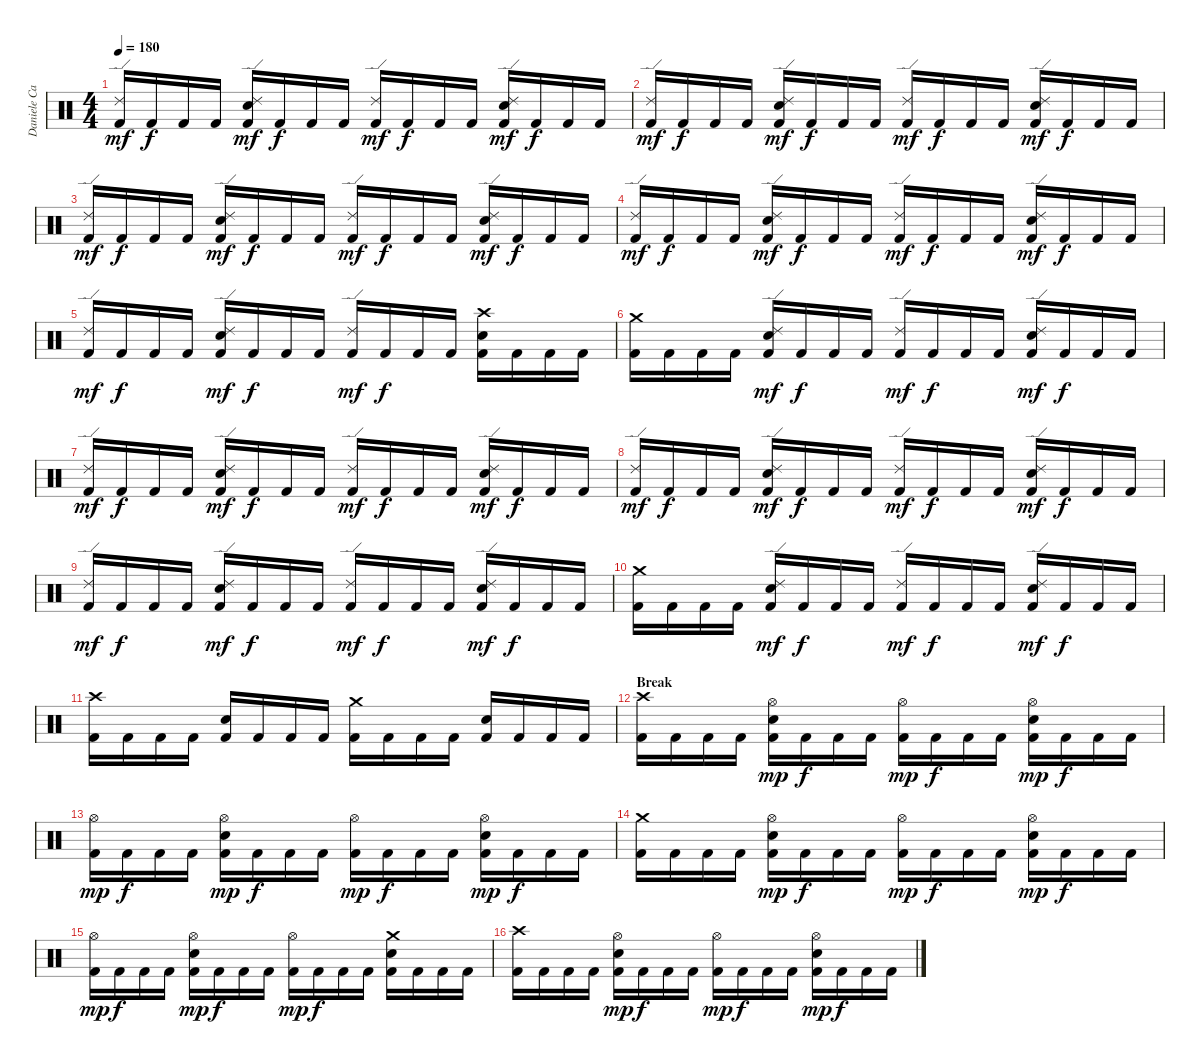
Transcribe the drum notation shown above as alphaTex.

\track ("Daniele Carbonera" "Daniele Ca") {instrument percussion}
\staff {score}
\articulation defaults
\ts (4 4)
\tempo 180
\clef neutral
\ks c
("Kick (hit) 2" "Ride (edge) 2").16{dy mf} "Kick (hit) 2".16{dy f} "Kick (hit) 2".16 "Kick (hit) 2".16 ("Kick (hit) 2" "Ride (edge) 2" "Snare (hit) 2").16{dy mf} "Kick (hit) 2".16{dy f} "Kick (hit) 2".16 "Kick (hit) 2".16 ("Kick (hit) 2" "Ride (edge) 2").16{dy mf} "Kick (hit) 2".16{dy f} "Kick (hit) 2".16 "Kick (hit) 2".16 ("Kick (hit) 2" "Ride (edge) 2" "Snare (hit) 2").16{dy mf} "Kick (hit) 2".16{dy f} "Kick (hit) 2".16 "Kick (hit) 2".16 |
("Kick (hit) 2" "Ride (edge) 2").16{dy mf} "Kick (hit) 2".16{dy f} "Kick (hit) 2".16 "Kick (hit) 2".16 ("Kick (hit) 2" "Ride (edge) 2" "Snare (hit) 2").16{dy mf} "Kick (hit) 2".16{dy f} "Kick (hit) 2".16 "Kick (hit) 2".16 ("Kick (hit) 2" "Ride (edge) 2").16{dy mf} "Kick (hit) 2".16{dy f} "Kick (hit) 2".16 "Kick (hit) 2".16 ("Kick (hit) 2" "Ride (edge) 2" "Snare (hit) 2").16{dy mf} "Kick (hit) 2".16{dy f} "Kick (hit) 2".16 "Kick (hit) 2".16 |
("Kick (hit) 2" "Ride (edge) 2").16{dy mf} "Kick (hit) 2".16{dy f} "Kick (hit) 2".16 "Kick (hit) 2".16 ("Kick (hit) 2" "Ride (edge) 2" "Snare (hit) 2").16{dy mf} "Kick (hit) 2".16{dy f} "Kick (hit) 2".16 "Kick (hit) 2".16 ("Kick (hit) 2" "Ride (edge) 2").16{dy mf} "Kick (hit) 2".16{dy f} "Kick (hit) 2".16 "Kick (hit) 2".16 ("Kick (hit) 2" "Ride (edge) 2" "Snare (hit) 2").16{dy mf} "Kick (hit) 2".16{dy f} "Kick (hit) 2".16 "Kick (hit) 2".16 |
("Kick (hit) 2" "Ride (edge) 2").16{dy mf} "Kick (hit) 2".16{dy f} "Kick (hit) 2".16 "Kick (hit) 2".16 ("Kick (hit) 2" "Ride (edge) 2" "Snare (hit) 2").16{dy mf} "Kick (hit) 2".16{dy f} "Kick (hit) 2".16 "Kick (hit) 2".16 ("Kick (hit) 2" "Ride (edge) 2").16{dy mf} "Kick (hit) 2".16{dy f} "Kick (hit) 2".16 "Kick (hit) 2".16 ("Kick (hit) 2" "Ride (edge) 2" "Snare (hit) 2").16{dy mf} "Kick (hit) 2".16{dy f} "Kick (hit) 2".16 "Kick (hit) 2".16 |
("Kick (hit) 2" "Ride (edge) 2").16{dy mf} "Kick (hit) 2".16{dy f} "Kick (hit) 2".16 "Kick (hit) 2".16 ("Kick (hit) 2" "Ride (edge) 2" "Snare (hit) 2").16{dy mf} "Kick (hit) 2".16{dy f} "Kick (hit) 2".16 "Kick (hit) 2".16 ("Kick (hit) 2" "Ride (edge) 2").16{dy mf} "Kick (hit) 2".16{dy f} "Kick (hit) 2".16 "Kick (hit) 2".16 ("Kick (hit) 2" "Crash high (hit)" "Snare (hit) 2").16 "Kick (hit) 2".16 "Kick (hit) 2".16 "Kick (hit) 2".16 |
("Kick (hit) 2" "Crash medium (hit)").16 "Kick (hit) 2".16 "Kick (hit) 2".16 "Kick (hit) 2".16 ("Kick (hit) 2" "Ride (edge) 2" "Snare (hit) 2").16{dy mf} "Kick (hit) 2".16{dy f} "Kick (hit) 2".16 "Kick (hit) 2".16 ("Kick (hit) 2" "Ride (edge) 2").16{dy mf} "Kick (hit) 2".16{dy f} "Kick (hit) 2".16 "Kick (hit) 2".16 ("Kick (hit) 2" "Ride (edge) 2" "Snare (hit) 2").16{dy mf} "Kick (hit) 2".16{dy f} "Kick (hit) 2".16 "Kick (hit) 2".16 |
("Kick (hit) 2" "Ride (edge) 2").16{dy mf} "Kick (hit) 2".16{dy f} "Kick (hit) 2".16 "Kick (hit) 2".16 ("Kick (hit) 2" "Ride (edge) 2" "Snare (hit) 2").16{dy mf} "Kick (hit) 2".16{dy f} "Kick (hit) 2".16 "Kick (hit) 2".16 ("Kick (hit) 2" "Ride (edge) 2").16{dy mf} "Kick (hit) 2".16{dy f} "Kick (hit) 2".16 "Kick (hit) 2".16 ("Kick (hit) 2" "Ride (edge) 2" "Snare (hit) 2").16{dy mf} "Kick (hit) 2".16{dy f} "Kick (hit) 2".16 "Kick (hit) 2".16 |
("Kick (hit) 2" "Ride (edge) 2").16{dy mf} "Kick (hit) 2".16{dy f} "Kick (hit) 2".16 "Kick (hit) 2".16 ("Kick (hit) 2" "Ride (edge) 2" "Snare (hit) 2").16{dy mf} "Kick (hit) 2".16{dy f} "Kick (hit) 2".16 "Kick (hit) 2".16 ("Kick (hit) 2" "Ride (edge) 2").16{dy mf} "Kick (hit) 2".16{dy f} "Kick (hit) 2".16 "Kick (hit) 2".16 ("Kick (hit) 2" "Ride (edge) 2" "Snare (hit) 2").16{dy mf} "Kick (hit) 2".16{dy f} "Kick (hit) 2".16 "Kick (hit) 2".16 |
("Kick (hit) 2" "Ride (edge) 2").16{dy mf} "Kick (hit) 2".16{dy f} "Kick (hit) 2".16 "Kick (hit) 2".16 ("Kick (hit) 2" "Ride (edge) 2" "Snare (hit) 2").16{dy mf} "Kick (hit) 2".16{dy f} "Kick (hit) 2".16 "Kick (hit) 2".16 ("Kick (hit) 2" "Ride (edge) 2").16{dy mf} "Kick (hit) 2".16{dy f} "Kick (hit) 2".16 "Kick (hit) 2".16 ("Kick (hit) 2" "Ride (edge) 2" "Snare (hit) 2").16{dy mf} "Kick (hit) 2".16{dy f} "Kick (hit) 2".16 "Kick (hit) 2".16 |
("Kick (hit) 2" "Crash medium (hit)").16 "Kick (hit) 2".16 "Kick (hit) 2".16 "Kick (hit) 2".16 ("Kick (hit) 2" "Ride (edge) 2" "Snare (hit) 2").16{dy mf} "Kick (hit) 2".16{dy f} "Kick (hit) 2".16 "Kick (hit) 2".16 ("Kick (hit) 2" "Ride (edge) 2").16{dy mf} "Kick (hit) 2".16{dy f} "Kick (hit) 2".16 "Kick (hit) 2".16 ("Kick (hit) 2" "Ride (edge) 2" "Snare (hit) 2").16{dy mf} "Kick (hit) 2".16{dy f} "Kick (hit) 2".16 "Kick (hit) 2".16 |
("Kick (hit) 2" "Crash high (hit)").16 "Kick (hit) 2".16 "Kick (hit) 2".16 "Kick (hit) 2".16 ("Kick (hit) 2" "Snare (hit) 2").16 "Kick (hit) 2".16 "Kick (hit) 2".16 "Kick (hit) 2".16 ("Kick (hit) 2" "Crash medium (hit)").16 "Kick (hit) 2".16 "Kick (hit) 2".16 "Kick (hit) 2".16 ("Kick (hit) 2" "Snare (hit) 2").16 "Kick (hit) 2".16 "Kick (hit) 2".16 "Kick (hit) 2".16 |
\section ("" "Break")
("Kick (hit) 2" "Crash high (hit)").16 "Kick (hit) 2".16 "Kick (hit) 2".16 "Kick (hit) 2".16 ("Kick (hit) 2" "Hi-Hat (open)" "Snare (hit) 2").16{dy mp} "Kick (hit) 2".16{dy f} "Kick (hit) 2".16 "Kick (hit) 2".16 ("Kick (hit) 2" "Hi-Hat (open)").16{dy mp} "Kick (hit) 2".16{dy f} "Kick (hit) 2".16 "Kick (hit) 2".16 ("Kick (hit) 2" "Hi-Hat (open)" "Snare (hit) 2").16{dy mp} "Kick (hit) 2".16{dy f} "Kick (hit) 2".16 "Kick (hit) 2".16 |
("Kick (hit) 2" "Hi-Hat (open)").16{dy mp} "Kick (hit) 2".16{dy f} "Kick (hit) 2".16 "Kick (hit) 2".16 ("Kick (hit) 2" "Hi-Hat (open)" "Snare (hit) 2").16{dy mp} "Kick (hit) 2".16{dy f} "Kick (hit) 2".16 "Kick (hit) 2".16 ("Kick (hit) 2" "Hi-Hat (open)").16{dy mp} "Kick (hit) 2".16{dy f} "Kick (hit) 2".16 "Kick (hit) 2".16 ("Kick (hit) 2" "Hi-Hat (open)" "Snare (hit) 2").16{dy mp} "Kick (hit) 2".16{dy f} "Kick (hit) 2".16 "Kick (hit) 2".16 |
("Kick (hit) 2" "Crash medium (hit)").16 "Kick (hit) 2".16 "Kick (hit) 2".16 "Kick (hit) 2".16 ("Kick (hit) 2" "Hi-Hat (open)" "Snare (hit) 2").16{dy mp} "Kick (hit) 2".16{dy f} "Kick (hit) 2".16 "Kick (hit) 2".16 ("Kick (hit) 2" "Hi-Hat (open)").16{dy mp} "Kick (hit) 2".16{dy f} "Kick (hit) 2".16 "Kick (hit) 2".16 ("Kick (hit) 2" "Hi-Hat (open)" "Snare (hit) 2").16{dy mp} "Kick (hit) 2".16{dy f} "Kick (hit) 2".16 "Kick (hit) 2".16 |
("Kick (hit) 2" "Hi-Hat (open)").16{dy mp} "Kick (hit) 2".16{dy f} "Kick (hit) 2".16 "Kick (hit) 2".16 ("Kick (hit) 2" "Hi-Hat (open)" "Snare (hit) 2").16{dy mp} "Kick (hit) 2".16{dy f} "Kick (hit) 2".16 "Kick (hit) 2".16 ("Kick (hit) 2" "Hi-Hat (open)").16{dy mp} "Kick (hit) 2".16{dy f} "Kick (hit) 2".16 "Kick (hit) 2".16 ("Kick (hit) 2" "Crash medium (hit)" "Snare (hit) 2").16 "Kick (hit) 2".16 "Kick (hit) 2".16 "Kick (hit) 2".16 |
("Kick (hit) 2" "Crash high (hit)").16 "Kick (hit) 2".16 "Kick (hit) 2".16 "Kick (hit) 2".16 ("Kick (hit) 2" "Hi-Hat (open)" "Snare (hit) 2").16{dy mp} "Kick (hit) 2".16{dy f} "Kick (hit) 2".16 "Kick (hit) 2".16 ("Kick (hit) 2" "Hi-Hat (open)").16{dy mp} "Kick (hit) 2".16{dy f} "Kick (hit) 2".16 "Kick (hit) 2".16 ("Kick (hit) 2" "Hi-Hat (open)" "Snare (hit) 2").16{dy mp} "Kick (hit) 2".16{dy f} "Kick (hit) 2".16 "Kick (hit) 2".16
